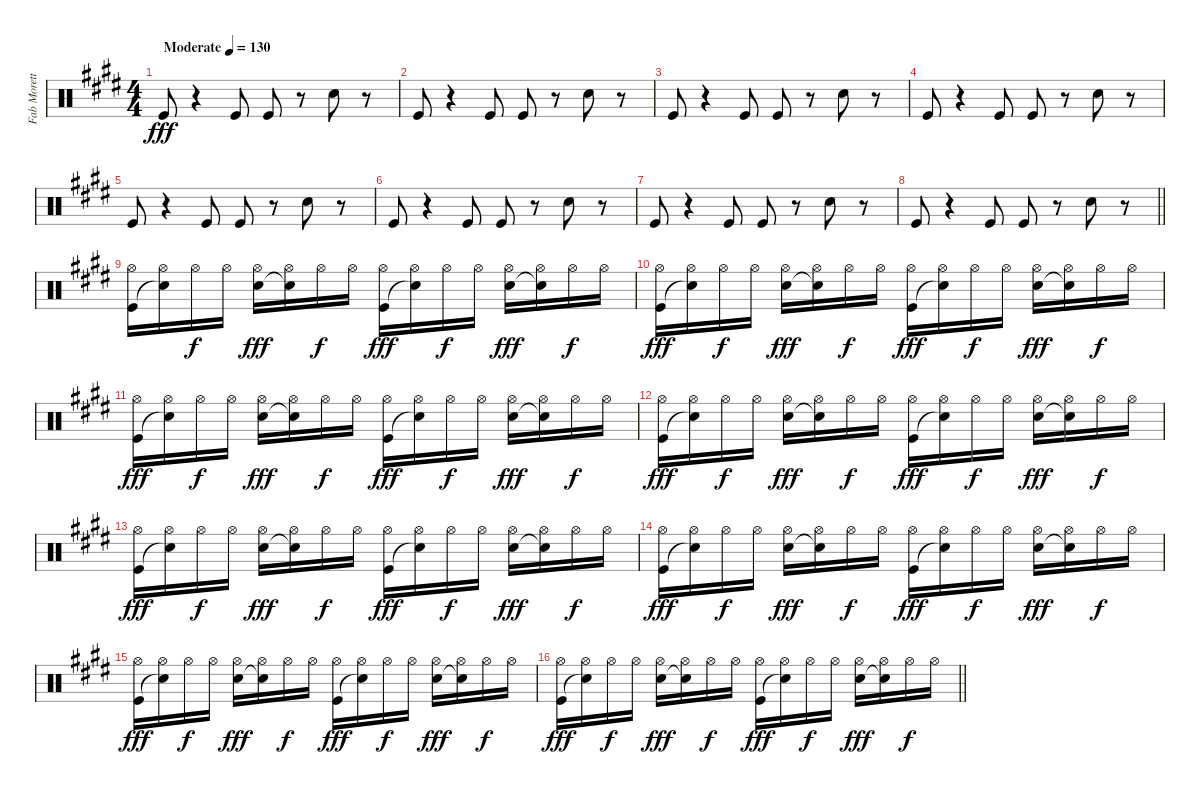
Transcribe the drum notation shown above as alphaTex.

\track ("Fab Moretti" "Fab Morett") {instrument percussion}
\staff {score}
\articulation defaults
\ts (4 4)
\tempo (130 "Moderate")
\clef neutral
\ks e "Kick (hit)".8{dy fff}
r.4 "Kick (hit)".8 "Kick (hit)".8 r.8 "Snare (hit) 2".8 r.8 |
"Kick (hit)".8 r.4 "Kick (hit)".8 "Kick (hit)".8 r.8 "Snare (hit) 2".8 r.8 |
"Kick (hit)".8 r.4 "Kick (hit)".8 "Kick (hit)".8 r.8 "Snare (hit) 2".8 r.8 |
"Kick (hit)".8 r.4 "Kick (hit)".8 "Kick (hit)".8 r.8 "Snare (hit) 2".8 r.8 |
"Kick (hit)".8 r.4 "Kick (hit)".8 "Kick (hit)".8 r.8 "Snare (hit) 2".8 r.8 |
"Kick (hit)".8 r.4 "Kick (hit)".8 "Kick (hit)".8 r.8 "Snare (hit) 2".8 r.8 |
"Kick (hit)".8 r.4 "Kick (hit)".8 "Kick (hit)".8 r.8 "Snare (hit) 2".8 r.8 |
\barLineRight lightlight "Kick (hit)".8
r.4 "Kick (hit)".8 "Kick (hit)".8 r.8 "Snare (hit) 2".8 r.8 |
("Hi-Hat (open)" "Kick (hit)").16 ("Hi-Hat (open)" "Snare (hit)"{t}).16 "Hi-Hat (open)".16{dy f} "Hi-Hat (open)".16 ("Hi-Hat (open)" "Snare (hit) 2").16{dy fff} ("Hi-Hat (open)" "Snare (hit)"{t}).16 "Hi-Hat (open)".16{dy f} "Hi-Hat (open)".16 ("Hi-Hat (open)" "Kick (hit)").16{dy fff} ("Hi-Hat (open)" "Snare (hit)"{t}).16 "Hi-Hat (open)".16{dy f} "Hi-Hat (open)".16 ("Hi-Hat (open)" "Snare (hit) 2").16{dy fff} ("Hi-Hat (open)" "Snare (hit)"{t}).16 "Hi-Hat (open)".16{dy f} "Hi-Hat (open)".16 |
("Hi-Hat (open)" "Kick (hit)").16{dy fff} ("Hi-Hat (open)" "Snare (hit)"{t}).16 "Hi-Hat (open)".16{dy f} "Hi-Hat (open)".16 ("Hi-Hat (open)" "Snare (hit) 2").16{dy fff} ("Hi-Hat (open)" "Snare (hit)"{t}).16 "Hi-Hat (open)".16{dy f} "Hi-Hat (open)".16 ("Hi-Hat (open)" "Kick (hit)").16{dy fff} ("Hi-Hat (open)" "Snare (hit)"{t}).16 "Hi-Hat (open)".16{dy f} "Hi-Hat (open)".16 ("Hi-Hat (open)" "Snare (hit) 2").16{dy fff} ("Hi-Hat (open)" "Snare (hit)"{t}).16 "Hi-Hat (open)".16{dy f} "Hi-Hat (open)".16 |
("Hi-Hat (open)" "Kick (hit)").16{dy fff} ("Hi-Hat (open)" "Snare (hit)"{t}).16 "Hi-Hat (open)".16{dy f} "Hi-Hat (open)".16 ("Hi-Hat (open)" "Snare (hit) 2").16{dy fff} ("Hi-Hat (open)" "Snare (hit)"{t}).16 "Hi-Hat (open)".16{dy f} "Hi-Hat (open)".16 ("Hi-Hat (open)" "Kick (hit)").16{dy fff} ("Hi-Hat (open)" "Snare (hit)"{t}).16 "Hi-Hat (open)".16{dy f} "Hi-Hat (open)".16 ("Hi-Hat (open)" "Snare (hit) 2").16{dy fff} ("Hi-Hat (open)" "Snare (hit)"{t}).16 "Hi-Hat (open)".16{dy f} "Hi-Hat (open)".16 |
("Hi-Hat (open)" "Kick (hit)").16{dy fff} ("Hi-Hat (open)" "Snare (hit)"{t}).16 "Hi-Hat (open)".16{dy f} "Hi-Hat (open)".16 ("Hi-Hat (open)" "Snare (hit) 2").16{dy fff} ("Hi-Hat (open)" "Snare (hit)"{t}).16 "Hi-Hat (open)".16{dy f} "Hi-Hat (open)".16 ("Hi-Hat (open)" "Kick (hit)").16{dy fff} ("Hi-Hat (open)" "Snare (hit)"{t}).16 "Hi-Hat (open)".16{dy f} "Hi-Hat (open)".16 ("Hi-Hat (open)" "Snare (hit) 2").16{dy fff} ("Hi-Hat (open)" "Snare (hit)"{t}).16 "Hi-Hat (open)".16{dy f} "Hi-Hat (open)".16 |
("Hi-Hat (open)" "Kick (hit)").16{dy fff} ("Hi-Hat (open)" "Snare (hit)"{t}).16 "Hi-Hat (open)".16{dy f} "Hi-Hat (open)".16 ("Hi-Hat (open)" "Snare (hit) 2").16{dy fff} ("Hi-Hat (open)" "Snare (hit)"{t}).16 "Hi-Hat (open)".16{dy f} "Hi-Hat (open)".16 ("Hi-Hat (open)" "Kick (hit)").16{dy fff} ("Hi-Hat (open)" "Snare (hit)"{t}).16 "Hi-Hat (open)".16{dy f} "Hi-Hat (open)".16 ("Hi-Hat (open)" "Snare (hit) 2").16{dy fff} ("Hi-Hat (open)" "Snare (hit)"{t}).16 "Hi-Hat (open)".16{dy f} "Hi-Hat (open)".16 |
("Hi-Hat (open)" "Kick (hit)").16{dy fff} ("Hi-Hat (open)" "Snare (hit)"{t}).16 "Hi-Hat (open)".16{dy f} "Hi-Hat (open)".16 ("Hi-Hat (open)" "Snare (hit) 2").16{dy fff} ("Hi-Hat (open)" "Snare (hit)"{t}).16 "Hi-Hat (open)".16{dy f} "Hi-Hat (open)".16 ("Hi-Hat (open)" "Kick (hit)").16{dy fff} ("Hi-Hat (open)" "Snare (hit)"{t}).16 "Hi-Hat (open)".16{dy f} "Hi-Hat (open)".16 ("Hi-Hat (open)" "Snare (hit) 2").16{dy fff} ("Hi-Hat (open)" "Snare (hit)"{t}).16 "Hi-Hat (open)".16{dy f} "Hi-Hat (open)".16 |
("Hi-Hat (open)" "Kick (hit)").16{dy fff} ("Hi-Hat (open)" "Snare (hit)"{t}).16 "Hi-Hat (open)".16{dy f} "Hi-Hat (open)".16 ("Hi-Hat (open)" "Snare (hit) 2").16{dy fff} ("Hi-Hat (open)" "Snare (hit)"{t}).16 "Hi-Hat (open)".16{dy f} "Hi-Hat (open)".16 ("Hi-Hat (open)" "Kick (hit)").16{dy fff} ("Hi-Hat (open)" "Snare (hit)"{t}).16 "Hi-Hat (open)".16{dy f} "Hi-Hat (open)".16 ("Hi-Hat (open)" "Snare (hit) 2").16{dy fff} ("Hi-Hat (open)" "Snare (hit)"{t}).16 "Hi-Hat (open)".16{dy f} "Hi-Hat (open)".16 |
\barLineRight lightlight
("Hi-Hat (open)" "Kick (hit)").16{dy fff} ("Hi-Hat (open)" "Snare (hit)"{t}).16 "Hi-Hat (open)".16{dy f} "Hi-Hat (open)".16 ("Hi-Hat (open)" "Snare (hit) 2").16{dy fff} ("Hi-Hat (open)" "Snare (hit)"{t}).16 "Hi-Hat (open)".16{dy f} "Hi-Hat (open)".16 ("Hi-Hat (open)" "Kick (hit)").16{dy fff} ("Hi-Hat (open)" "Snare (hit)"{t}).16 "Hi-Hat (open)".16{dy f} "Hi-Hat (open)".16 ("Hi-Hat (open)" "Snare (hit) 2").16{dy fff} ("Hi-Hat (open)" "Snare (hit)"{t}).16 "Hi-Hat (open)".16{dy f} "Hi-Hat (open)".16
